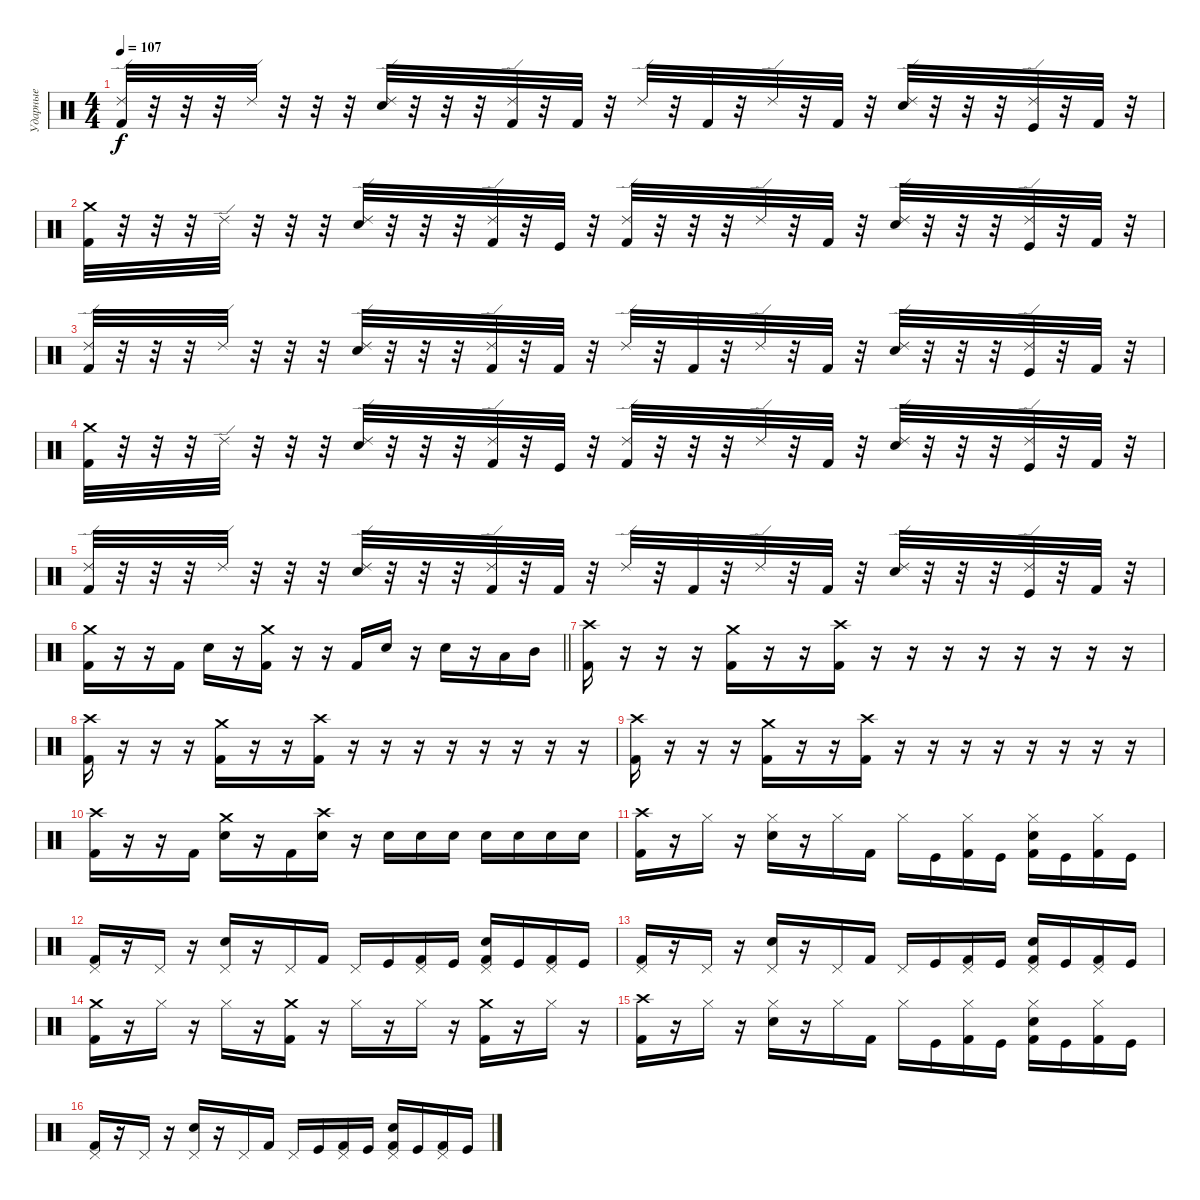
\track ("Ударные" "Ударные") {instrument percussion}
\staff {score}
\articulation defaults
\ts (4 4)
\tempo 107
\clef neutral
\ks c
("Ride (edge) 2" "Kick (hit) 2").32{dy f} r.32 r.32 r.32 "Ride (edge) 2".32 r.32 r.32 r.32 ("Ride (edge) 2" "Electric Snare (hit)").32 r.32 r.32 r.32 ("Ride (edge) 2" "Kick (hit) 2").32 r.32 "Kick (hit) 2".32 r.32 "Ride (edge) 2".32 r.32 "Kick (hit) 2".32 r.32 "Ride (edge) 2".32 r.32 "Kick (hit) 2".32 r.32 ("Ride (edge) 2" "Electric Snare (hit)").32 r.32 r.32 r.32 ("Ride (edge) 2" "Kick (hit)").32 r.32 "Kick (hit) 2".32 r.32 |
("Crash medium (hit)" "Kick (hit) 2").32 r.32 r.32 r.32 "Ride (edge) 2".32 r.32 r.32 r.32 ("Ride (edge) 2" "Electric Snare (hit)").32 r.32 r.32 r.32 ("Ride (edge) 2" "Kick (hit) 2").32 r.32 "Kick (hit)".32 r.32 ("Ride (edge) 2" "Kick (hit) 2").32 r.32 r.32 r.32 "Ride (edge) 2".32 r.32 "Kick (hit) 2".32 r.32 ("Ride (edge) 2" "Electric Snare (hit)").32 r.32 r.32 r.32 ("Ride (edge) 2" "Kick (hit)").32 r.32 "Kick (hit) 2".32 r.32 |
("Ride (edge) 2" "Kick (hit) 2").32 r.32 r.32 r.32 "Ride (edge) 2".32 r.32 r.32 r.32 ("Ride (edge) 2" "Electric Snare (hit)").32 r.32 r.32 r.32 ("Ride (edge) 2" "Kick (hit) 2").32 r.32 "Kick (hit) 2".32 r.32 "Ride (edge) 2".32 r.32 "Kick (hit) 2".32 r.32 "Ride (edge) 2".32 r.32 "Kick (hit) 2".32 r.32 ("Ride (edge) 2" "Electric Snare (hit)").32 r.32 r.32 r.32 ("Ride (edge) 2" "Kick (hit)").32 r.32 "Kick (hit) 2".32 r.32 |
("Crash medium (hit)" "Kick (hit) 2").32 r.32 r.32 r.32 "Ride (edge) 2".32 r.32 r.32 r.32 ("Ride (edge) 2" "Electric Snare (hit)").32 r.32 r.32 r.32 ("Ride (edge) 2" "Kick (hit) 2").32 r.32 "Kick (hit)".32 r.32 ("Ride (edge) 2" "Kick (hit) 2").32 r.32 r.32 r.32 "Ride (edge) 2".32 r.32 "Kick (hit) 2".32 r.32 ("Ride (edge) 2" "Electric Snare (hit)").32 r.32 r.32 r.32 ("Ride (edge) 2" "Kick (hit)").32 r.32 "Kick (hit) 2".32 r.32 |
("Ride (edge) 2" "Kick (hit) 2").32 r.32 r.32 r.32 "Ride (edge) 2".32 r.32 r.32 r.32 ("Ride (edge) 2" "Electric Snare (hit)").32 r.32 r.32 r.32 ("Ride (edge) 2" "Kick (hit) 2").32 r.32 "Kick (hit) 2".32 r.32 "Ride (edge) 2".32 r.32 "Kick (hit) 2".32 r.32 "Ride (edge) 2".32 r.32 "Kick (hit) 2".32 r.32 ("Ride (edge) 2" "Electric Snare (hit)").32 r.32 r.32 r.32 ("Ride (edge) 2" "Kick (hit)").32 r.32 "Kick (hit) 2".32 r.32 |
\barLineRight lightlight
("Crash medium (hit)" "Kick (hit) 2").16 r.16 r.16 "Kick (hit) 2".16 "Electric Snare (hit)".16 r.16 ("Crash medium (hit)" "Kick (hit) 2").16 r.16 r.16 "Kick (hit) 2".16 "Electric Snare (hit)".16 r.16 "Electric Snare (hit)".16 r.16 "Low Tom (hit)".16 "Mid Tom (hit)".16 |
("Crash high (hit)" "Kick (hit) 2").16 r.16 r.16 r.16 ("Crash medium (hit)" "Kick (hit) 2").16 r.16 r.16 ("Crash high (hit)" "Kick (hit) 2").16 r.16 r.16 r.16 r.16 r.16 r.16 r.16 r.16 |
("Crash high (hit)" "Kick (hit) 2").16 r.16 r.16 r.16 ("Crash medium (hit)" "Kick (hit) 2").16 r.16 r.16 ("Crash high (hit)" "Kick (hit) 2").16 r.16 r.16 r.16 r.16 r.16 r.16 r.16 r.16 |
("Crash high (hit)" "Kick (hit) 2").16 r.16 r.16 r.16 ("Crash medium (hit)" "Kick (hit) 2").16 r.16 r.16 ("Crash high (hit)" "Kick (hit) 2").16 r.16 r.16 r.16 r.16 r.16 r.16 r.16 r.16 |
("Crash high (hit)" "Kick (hit) 2").16 r.16 r.16 "Kick (hit) 2".16 ("Crash medium (hit)" "Electric Snare (hit)").16 r.16 "Kick (hit) 2".16 ("Crash high (hit)" "Electric Snare (hit)").16 r.16 "Electric Snare (hit)".16 "Electric Snare (hit)".16 "Electric Snare (hit)".16 "Electric Snare (hit)".16 "Electric Snare (hit)".16 "Electric Snare (hit)".16 "Electric Snare (hit)".16 |
("Crash high (hit)" "Kick (hit) 2").16 r.16 "Hi-Hat (closed)".16 r.16 ("Hi-Hat (closed)" "Electric Snare (hit)").16 r.16 "Hi-Hat (closed)".16 "Kick (hit) 2".16 "Hi-Hat (closed)".16 "Kick (hit)".16 ("Hi-Hat (closed)" "Kick (hit) 2").16 "Kick (hit)".16 ("Hi-Hat (closed)" "Kick (hit) 2" "Electric Snare (hit)").16 "Kick (hit)".16 ("Hi-Hat (closed)" "Kick (hit) 2").16 "Kick (hit)".16 |
("Pedal Hi-Hat (hit)" "Kick (hit) 2").16 r.16 "Pedal Hi-Hat (hit)".16 r.16 ("Pedal Hi-Hat (hit)" "Electric Snare (hit)").16 r.16 "Pedal Hi-Hat (hit)".16 "Kick (hit) 2".16 "Pedal Hi-Hat (hit)".16 "Kick (hit)".16 ("Pedal Hi-Hat (hit)" "Kick (hit) 2").16 "Kick (hit)".16 ("Pedal Hi-Hat (hit)" "Kick (hit) 2" "Electric Snare (hit)").16 "Kick (hit)".16 ("Pedal Hi-Hat (hit)" "Kick (hit) 2").16 "Kick (hit)".16 |
("Pedal Hi-Hat (hit)" "Kick (hit) 2").16 r.16 "Pedal Hi-Hat (hit)".16 r.16 ("Pedal Hi-Hat (hit)" "Electric Snare (hit)").16 r.16 "Pedal Hi-Hat (hit)".16 "Kick (hit) 2".16 "Pedal Hi-Hat (hit)".16 "Kick (hit)".16 ("Pedal Hi-Hat (hit)" "Kick (hit) 2").16 "Kick (hit)".16 ("Pedal Hi-Hat (hit)" "Kick (hit) 2" "Electric Snare (hit)").16 "Kick (hit)".16 ("Pedal Hi-Hat (hit)" "Kick (hit) 2").16 "Kick (hit)".16 |
("Crash medium (hit)" "Kick (hit) 2").16 r.16 "Hi-Hat (closed)".16 r.16 "Hi-Hat (closed)".16 r.16 ("Crash medium (hit)" "Kick (hit) 2").16 r.16 "Hi-Hat (closed)".16 r.16 "Hi-Hat (closed)".16 r.16 ("Crash medium (hit)" "Kick (hit) 2").16 r.16 "Hi-Hat (closed)".16 r.16 |
("Crash high (hit)" "Kick (hit) 2").16 r.16 "Hi-Hat (closed)".16 r.16 ("Hi-Hat (closed)" "Electric Snare (hit)").16 r.16 "Hi-Hat (closed)".16 "Kick (hit) 2".16 "Hi-Hat (closed)".16 "Kick (hit)".16 ("Hi-Hat (closed)" "Kick (hit) 2").16 "Kick (hit)".16 ("Hi-Hat (closed)" "Kick (hit) 2" "Electric Snare (hit)").16 "Kick (hit)".16 ("Hi-Hat (closed)" "Kick (hit) 2").16 "Kick (hit)".16 |
("Pedal Hi-Hat (hit)" "Kick (hit) 2").16 r.16 "Pedal Hi-Hat (hit)".16 r.16 ("Pedal Hi-Hat (hit)" "Electric Snare (hit)").16 r.16 "Pedal Hi-Hat (hit)".16 "Kick (hit) 2".16 "Pedal Hi-Hat (hit)".16 "Kick (hit)".16 ("Pedal Hi-Hat (hit)" "Kick (hit) 2").16 "Kick (hit)".16 ("Pedal Hi-Hat (hit)" "Kick (hit) 2" "Electric Snare (hit)").16 "Kick (hit)".16 ("Pedal Hi-Hat (hit)" "Kick (hit) 2").16 "Kick (hit)".16
